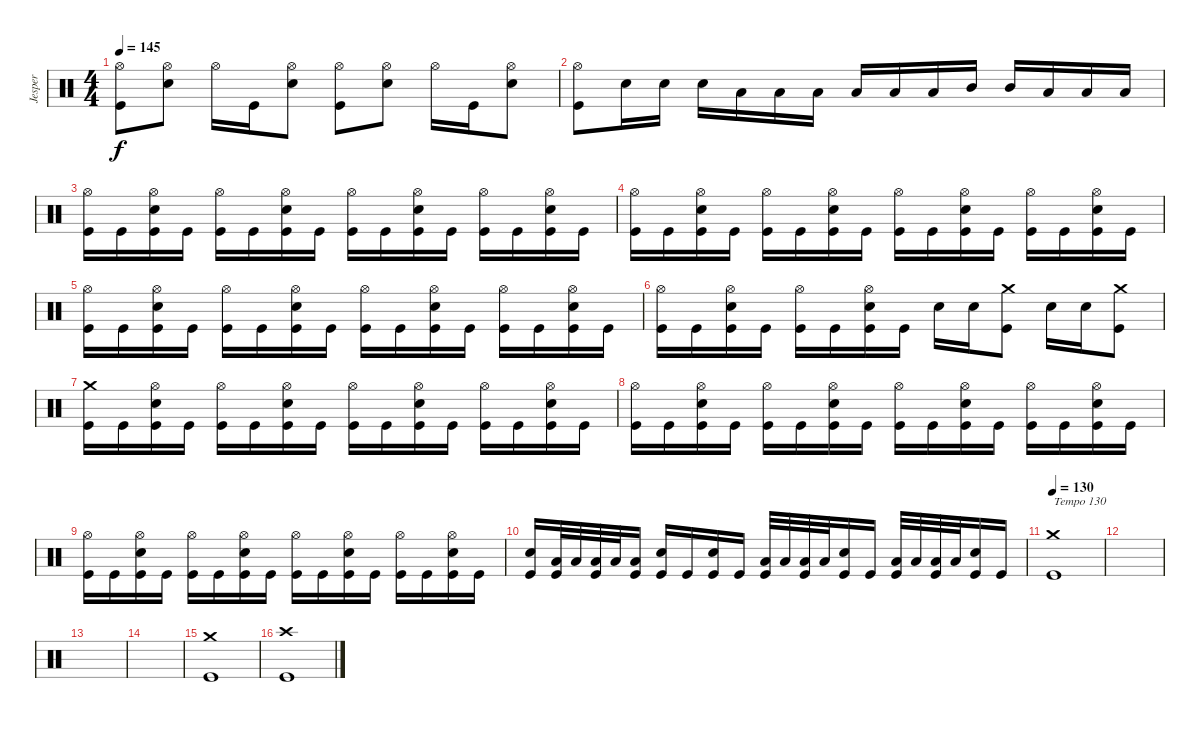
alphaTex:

\track ("Jesper" "Jesper") {instrument percussion}
\staff {score}
\articulation defaults
\ts (4 4)
\tempo 145
\clef neutral
\ks c
("Hi-Hat (open)" "Kick (hit)").8{dy f} ("Hi-Hat (open)" "Electric Snare (hit)").8 "Hi-Hat (open)".16 "Kick (hit)".16 ("Hi-Hat (open)" "Electric Snare (hit)").8 ("Hi-Hat (open)" "Kick (hit)").8 ("Hi-Hat (open)" "Electric Snare (hit)").8 "Hi-Hat (open)".16 "Kick (hit)".16 ("Hi-Hat (open)" "Electric Snare (hit)").8 |
("Hi-Hat (open)" "Kick (hit)").8 "Electric Snare (hit)".16 "Electric Snare (hit)".16 "Electric Snare (hit)".16 "Low Tom (hit)".16 "Low Tom (hit)".16 "Low Tom (hit)".16 "Low Tom (hit)".16 "Low Tom (hit)".16 "Low Tom (hit)".16 "Mid Tom (hit)".16 "Mid Tom (hit)".16 "Low Floor Tom (hit)".16 "Low Floor Tom (hit)".16 "Low Floor Tom (hit)".16 |
("Hi-Hat (open)" "Kick (hit)").16 "Kick (hit)".16 ("Hi-Hat (open)" "Electric Snare (hit)" "Kick (hit)").16 "Kick (hit)".16 ("Hi-Hat (open)" "Kick (hit)").16 "Kick (hit)".16 ("Hi-Hat (open)" "Electric Snare (hit)" "Kick (hit)").16 "Kick (hit)".16 ("Hi-Hat (open)" "Kick (hit)").16 "Kick (hit)".16 ("Hi-Hat (open)" "Electric Snare (hit)" "Kick (hit)").16 "Kick (hit)".16 ("Hi-Hat (open)" "Kick (hit)").16 "Kick (hit)".16 ("Hi-Hat (open)" "Electric Snare (hit)" "Kick (hit)").16 "Kick (hit)".16 |
("Hi-Hat (open)" "Kick (hit)").16 "Kick (hit)".16 ("Hi-Hat (open)" "Electric Snare (hit)" "Kick (hit)").16 "Kick (hit)".16 ("Hi-Hat (open)" "Kick (hit)").16 "Kick (hit)".16 ("Hi-Hat (open)" "Electric Snare (hit)" "Kick (hit)").16 "Kick (hit)".16 ("Hi-Hat (open)" "Kick (hit)").16 "Kick (hit)".16 ("Hi-Hat (open)" "Electric Snare (hit)" "Kick (hit)").16 "Kick (hit)".16 ("Hi-Hat (open)" "Kick (hit)").16 "Kick (hit)".16 ("Hi-Hat (open)" "Electric Snare (hit)" "Kick (hit)").16 "Kick (hit)".16 |
("Hi-Hat (open)" "Kick (hit)").16 "Kick (hit)".16 ("Hi-Hat (open)" "Electric Snare (hit)" "Kick (hit)").16 "Kick (hit)".16 ("Hi-Hat (open)" "Kick (hit)").16 "Kick (hit)".16 ("Hi-Hat (open)" "Electric Snare (hit)" "Kick (hit)").16 "Kick (hit)".16 ("Hi-Hat (open)" "Kick (hit)").16 "Kick (hit)".16 ("Hi-Hat (open)" "Electric Snare (hit)" "Kick (hit)").16 "Kick (hit)".16 ("Hi-Hat (open)" "Kick (hit)").16 "Kick (hit)".16 ("Hi-Hat (open)" "Electric Snare (hit)" "Kick (hit)").16 "Kick (hit)".16 |
("Hi-Hat (open)" "Kick (hit)").16 "Kick (hit)".16 ("Hi-Hat (open)" "Electric Snare (hit)" "Kick (hit)").16 "Kick (hit)".16 ("Hi-Hat (open)" "Kick (hit)").16 "Kick (hit)".16 ("Hi-Hat (open)" "Electric Snare (hit)" "Kick (hit)").16 "Kick (hit)".16 "Electric Snare (hit)".16 "Electric Snare (hit)".16 ("Crash medium (hit)" "Kick (hit)").8 "Electric Snare (hit)".16 "Electric Snare (hit)".16 ("Crash medium (hit)" "Kick (hit)").8 |
("Crash medium (hit)" "Kick (hit)").16 "Kick (hit)".16 ("Hi-Hat (open)" "Electric Snare (hit)" "Kick (hit)").16 "Kick (hit)".16 ("Hi-Hat (open)" "Kick (hit)").16 "Kick (hit)".16 ("Hi-Hat (open)" "Electric Snare (hit)" "Kick (hit)").16 "Kick (hit)".16 ("Hi-Hat (open)" "Kick (hit)").16 "Kick (hit)".16 ("Hi-Hat (open)" "Electric Snare (hit)" "Kick (hit)").16 "Kick (hit)".16 ("Hi-Hat (open)" "Kick (hit)").16 "Kick (hit)".16 ("Hi-Hat (open)" "Electric Snare (hit)" "Kick (hit)").16 "Kick (hit)".16 |
("Hi-Hat (open)" "Kick (hit)").16 "Kick (hit)".16 ("Hi-Hat (open)" "Electric Snare (hit)" "Kick (hit)").16 "Kick (hit)".16 ("Hi-Hat (open)" "Kick (hit)").16 "Kick (hit)".16 ("Hi-Hat (open)" "Electric Snare (hit)" "Kick (hit)").16 "Kick (hit)".16 ("Hi-Hat (open)" "Kick (hit)").16 "Kick (hit)".16 ("Hi-Hat (open)" "Electric Snare (hit)" "Kick (hit)").16 "Kick (hit)".16 ("Hi-Hat (open)" "Kick (hit)").16 "Kick (hit)".16 ("Hi-Hat (open)" "Electric Snare (hit)" "Kick (hit)").16 "Kick (hit)".16 |
("Hi-Hat (open)" "Kick (hit)").16 "Kick (hit)".16 ("Hi-Hat (open)" "Electric Snare (hit)" "Kick (hit)").16 "Kick (hit)".16 ("Hi-Hat (open)" "Kick (hit)").16 "Kick (hit)".16 ("Hi-Hat (open)" "Electric Snare (hit)" "Kick (hit)").16 "Kick (hit)".16 ("Hi-Hat (open)" "Kick (hit)").16 "Kick (hit)".16 ("Hi-Hat (open)" "Electric Snare (hit)" "Kick (hit)").16 "Kick (hit)".16 ("Hi-Hat (open)" "Kick (hit)").16 "Kick (hit)".16 ("Hi-Hat (open)" "Electric Snare (hit)" "Kick (hit)").16 "Kick (hit)".16 |
("Kick (hit)" "Electric Snare (hit)").16 ("Kick (hit)" "Low Floor Tom (hit)").32 "Low Floor Tom (hit)".32 ("Kick (hit)" "Low Floor Tom (hit)").32 "Low Floor Tom (hit)".32 ("Kick (hit)" "Low Floor Tom (hit)").16 ("Kick (hit)" "Electric Snare (hit)").16 "Kick (hit)".16 ("Kick (hit)" "Electric Snare (hit)").16 "Kick (hit)".16 ("Kick (hit)" "Low Floor Tom (hit)").32 "Low Floor Tom (hit)".32 ("Kick (hit)" "Low Floor Tom (hit)").32 "Low Floor Tom (hit)".32 ("Kick (hit)" "Electric Snare (hit)").16 "Kick (hit)".16 ("Kick (hit)" "Low Floor Tom (hit)").32 "Low Floor Tom (hit)".32 ("Kick (hit)" "Low Floor Tom (hit)").32 "Low Floor Tom (hit)".32 ("Kick (hit)" "Electric Snare (hit)").16 "Kick (hit)".16 |
\tempo 130
("Crash medium (hit)" "Kick (hit)").1{txt "Tempo 130"} |
|
|
|
("Crash medium (hit)" "Kick (hit)").1 |
("Crash high (hit)" "Kick (hit)").1
